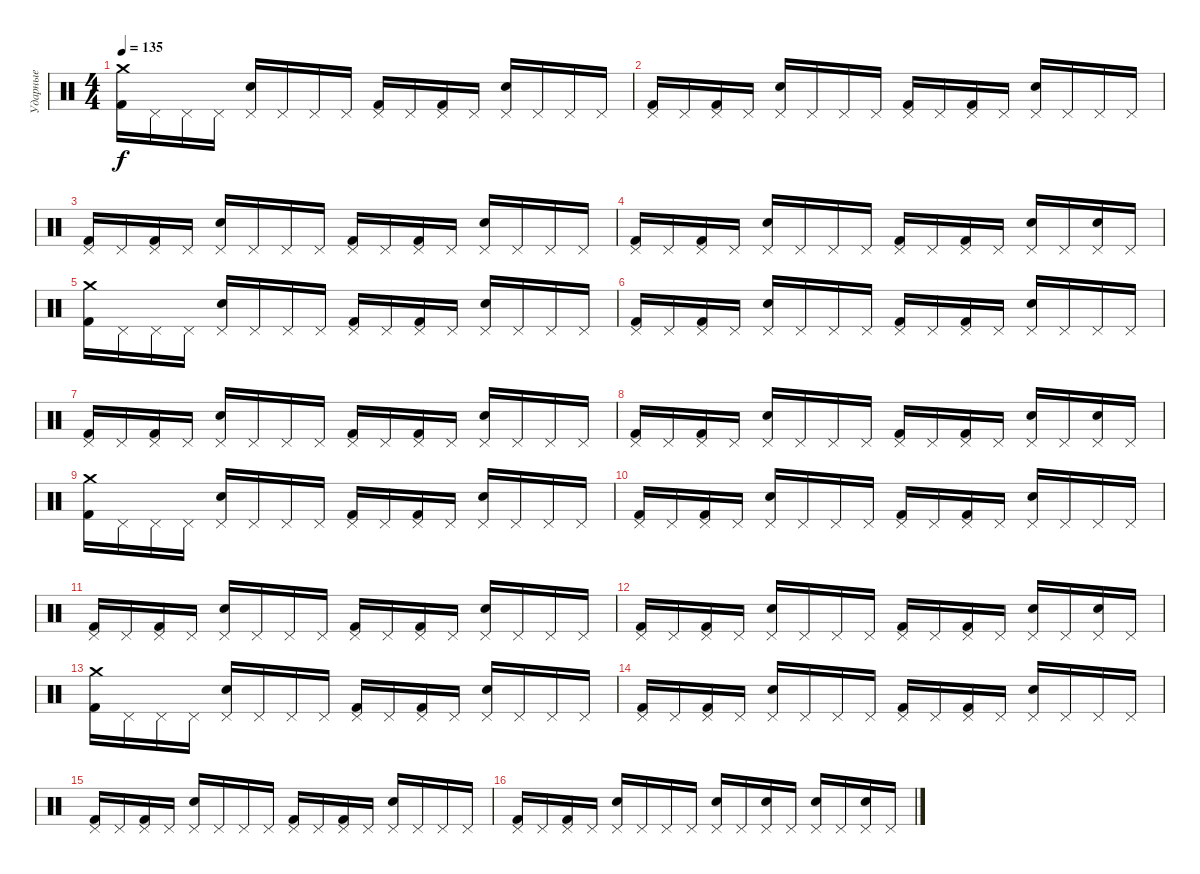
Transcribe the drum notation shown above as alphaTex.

\track ("Ударные" "Ударные") {instrument percussion}
\staff {score}
\articulation defaults
\ts (4 4)
\tempo 135
\clef neutral
\ks c
("Crash medium (hit)" "Kick (hit) 2").16{dy f} "Pedal Hi-Hat (hit)".16 "Pedal Hi-Hat (hit)".16 "Pedal Hi-Hat (hit)".16 ("Pedal Hi-Hat (hit)" "Snare (hit) 2").16 "Pedal Hi-Hat (hit)".16 "Pedal Hi-Hat (hit)".16 "Pedal Hi-Hat (hit)".16 ("Pedal Hi-Hat (hit)" "Kick (hit) 2").16 "Pedal Hi-Hat (hit)".16 ("Pedal Hi-Hat (hit)" "Kick (hit) 2").16 "Pedal Hi-Hat (hit)".16 ("Pedal Hi-Hat (hit)" "Snare (hit) 2").16 "Pedal Hi-Hat (hit)".16 "Pedal Hi-Hat (hit)".16 "Pedal Hi-Hat (hit)".16 |
("Pedal Hi-Hat (hit)" "Kick (hit) 2").16 "Pedal Hi-Hat (hit)".16 ("Pedal Hi-Hat (hit)" "Kick (hit) 2").16 "Pedal Hi-Hat (hit)".16 ("Pedal Hi-Hat (hit)" "Snare (hit) 2").16 "Pedal Hi-Hat (hit)".16 "Pedal Hi-Hat (hit)".16 "Pedal Hi-Hat (hit)".16 ("Pedal Hi-Hat (hit)" "Kick (hit) 2").16 "Pedal Hi-Hat (hit)".16 ("Pedal Hi-Hat (hit)" "Kick (hit) 2").16 "Pedal Hi-Hat (hit)".16 ("Pedal Hi-Hat (hit)" "Snare (hit) 2").16 "Pedal Hi-Hat (hit)".16 "Pedal Hi-Hat (hit)".16 "Pedal Hi-Hat (hit)".16 |
("Pedal Hi-Hat (hit)" "Kick (hit) 2").16 "Pedal Hi-Hat (hit)".16 ("Pedal Hi-Hat (hit)" "Kick (hit) 2").16 "Pedal Hi-Hat (hit)".16 ("Pedal Hi-Hat (hit)" "Snare (hit) 2").16 "Pedal Hi-Hat (hit)".16 "Pedal Hi-Hat (hit)".16 "Pedal Hi-Hat (hit)".16 ("Pedal Hi-Hat (hit)" "Kick (hit) 2").16 "Pedal Hi-Hat (hit)".16 ("Pedal Hi-Hat (hit)" "Kick (hit) 2").16 "Pedal Hi-Hat (hit)".16 ("Pedal Hi-Hat (hit)" "Snare (hit) 2").16 "Pedal Hi-Hat (hit)".16 "Pedal Hi-Hat (hit)".16 "Pedal Hi-Hat (hit)".16 |
("Pedal Hi-Hat (hit)" "Kick (hit) 2").16 "Pedal Hi-Hat (hit)".16 ("Pedal Hi-Hat (hit)" "Kick (hit) 2").16 "Pedal Hi-Hat (hit)".16 ("Pedal Hi-Hat (hit)" "Snare (hit) 2").16 "Pedal Hi-Hat (hit)".16 "Pedal Hi-Hat (hit)".16 "Pedal Hi-Hat (hit)".16 ("Pedal Hi-Hat (hit)" "Kick (hit) 2").16 "Pedal Hi-Hat (hit)".16 ("Pedal Hi-Hat (hit)" "Kick (hit) 2").16 "Pedal Hi-Hat (hit)".16 ("Pedal Hi-Hat (hit)" "Snare (hit) 2").16 "Pedal Hi-Hat (hit)".16 ("Pedal Hi-Hat (hit)" "Snare (hit) 2").16 "Pedal Hi-Hat (hit)".16 |
("Crash medium (hit)" "Kick (hit) 2").16 "Pedal Hi-Hat (hit)".16 "Pedal Hi-Hat (hit)".16 "Pedal Hi-Hat (hit)".16 ("Pedal Hi-Hat (hit)" "Snare (hit) 2").16 "Pedal Hi-Hat (hit)".16 "Pedal Hi-Hat (hit)".16 "Pedal Hi-Hat (hit)".16 ("Pedal Hi-Hat (hit)" "Kick (hit) 2").16 "Pedal Hi-Hat (hit)".16 ("Pedal Hi-Hat (hit)" "Kick (hit) 2").16 "Pedal Hi-Hat (hit)".16 ("Pedal Hi-Hat (hit)" "Snare (hit) 2").16 "Pedal Hi-Hat (hit)".16 "Pedal Hi-Hat (hit)".16 "Pedal Hi-Hat (hit)".16 |
("Pedal Hi-Hat (hit)" "Kick (hit) 2").16 "Pedal Hi-Hat (hit)".16 ("Pedal Hi-Hat (hit)" "Kick (hit) 2").16 "Pedal Hi-Hat (hit)".16 ("Pedal Hi-Hat (hit)" "Snare (hit) 2").16 "Pedal Hi-Hat (hit)".16 "Pedal Hi-Hat (hit)".16 "Pedal Hi-Hat (hit)".16 ("Pedal Hi-Hat (hit)" "Kick (hit) 2").16 "Pedal Hi-Hat (hit)".16 ("Pedal Hi-Hat (hit)" "Kick (hit) 2").16 "Pedal Hi-Hat (hit)".16 ("Pedal Hi-Hat (hit)" "Snare (hit) 2").16 "Pedal Hi-Hat (hit)".16 "Pedal Hi-Hat (hit)".16 "Pedal Hi-Hat (hit)".16 |
("Pedal Hi-Hat (hit)" "Kick (hit) 2").16 "Pedal Hi-Hat (hit)".16 ("Pedal Hi-Hat (hit)" "Kick (hit) 2").16 "Pedal Hi-Hat (hit)".16 ("Pedal Hi-Hat (hit)" "Snare (hit) 2").16 "Pedal Hi-Hat (hit)".16 "Pedal Hi-Hat (hit)".16 "Pedal Hi-Hat (hit)".16 ("Pedal Hi-Hat (hit)" "Kick (hit) 2").16 "Pedal Hi-Hat (hit)".16 ("Pedal Hi-Hat (hit)" "Kick (hit) 2").16 "Pedal Hi-Hat (hit)".16 ("Pedal Hi-Hat (hit)" "Snare (hit) 2").16 "Pedal Hi-Hat (hit)".16 "Pedal Hi-Hat (hit)".16 "Pedal Hi-Hat (hit)".16 |
("Pedal Hi-Hat (hit)" "Kick (hit) 2").16 "Pedal Hi-Hat (hit)".16 ("Pedal Hi-Hat (hit)" "Kick (hit) 2").16 "Pedal Hi-Hat (hit)".16 ("Pedal Hi-Hat (hit)" "Snare (hit) 2").16 "Pedal Hi-Hat (hit)".16 "Pedal Hi-Hat (hit)".16 "Pedal Hi-Hat (hit)".16 ("Pedal Hi-Hat (hit)" "Kick (hit) 2").16 "Pedal Hi-Hat (hit)".16 ("Pedal Hi-Hat (hit)" "Kick (hit) 2").16 "Pedal Hi-Hat (hit)".16 ("Pedal Hi-Hat (hit)" "Snare (hit) 2").16 "Pedal Hi-Hat (hit)".16 ("Pedal Hi-Hat (hit)" "Snare (hit) 2").16 "Pedal Hi-Hat (hit)".16 |
("Crash medium (hit)" "Kick (hit) 2").16 "Pedal Hi-Hat (hit)".16 "Pedal Hi-Hat (hit)".16 "Pedal Hi-Hat (hit)".16 ("Pedal Hi-Hat (hit)" "Snare (hit) 2").16 "Pedal Hi-Hat (hit)".16 "Pedal Hi-Hat (hit)".16 "Pedal Hi-Hat (hit)".16 ("Pedal Hi-Hat (hit)" "Kick (hit) 2").16 "Pedal Hi-Hat (hit)".16 ("Pedal Hi-Hat (hit)" "Kick (hit) 2").16 "Pedal Hi-Hat (hit)".16 ("Pedal Hi-Hat (hit)" "Snare (hit) 2").16 "Pedal Hi-Hat (hit)".16 "Pedal Hi-Hat (hit)".16 "Pedal Hi-Hat (hit)".16 |
("Pedal Hi-Hat (hit)" "Kick (hit) 2").16 "Pedal Hi-Hat (hit)".16 ("Pedal Hi-Hat (hit)" "Kick (hit) 2").16 "Pedal Hi-Hat (hit)".16 ("Pedal Hi-Hat (hit)" "Snare (hit) 2").16 "Pedal Hi-Hat (hit)".16 "Pedal Hi-Hat (hit)".16 "Pedal Hi-Hat (hit)".16 ("Pedal Hi-Hat (hit)" "Kick (hit) 2").16 "Pedal Hi-Hat (hit)".16 ("Pedal Hi-Hat (hit)" "Kick (hit) 2").16 "Pedal Hi-Hat (hit)".16 ("Pedal Hi-Hat (hit)" "Snare (hit) 2").16 "Pedal Hi-Hat (hit)".16 "Pedal Hi-Hat (hit)".16 "Pedal Hi-Hat (hit)".16 |
("Pedal Hi-Hat (hit)" "Kick (hit) 2").16 "Pedal Hi-Hat (hit)".16 ("Pedal Hi-Hat (hit)" "Kick (hit) 2").16 "Pedal Hi-Hat (hit)".16 ("Pedal Hi-Hat (hit)" "Snare (hit) 2").16 "Pedal Hi-Hat (hit)".16 "Pedal Hi-Hat (hit)".16 "Pedal Hi-Hat (hit)".16 ("Pedal Hi-Hat (hit)" "Kick (hit) 2").16 "Pedal Hi-Hat (hit)".16 ("Pedal Hi-Hat (hit)" "Kick (hit) 2").16 "Pedal Hi-Hat (hit)".16 ("Pedal Hi-Hat (hit)" "Snare (hit) 2").16 "Pedal Hi-Hat (hit)".16 "Pedal Hi-Hat (hit)".16 "Pedal Hi-Hat (hit)".16 |
("Pedal Hi-Hat (hit)" "Kick (hit) 2").16 "Pedal Hi-Hat (hit)".16 ("Pedal Hi-Hat (hit)" "Kick (hit) 2").16 "Pedal Hi-Hat (hit)".16 ("Pedal Hi-Hat (hit)" "Snare (hit) 2").16 "Pedal Hi-Hat (hit)".16 "Pedal Hi-Hat (hit)".16 "Pedal Hi-Hat (hit)".16 ("Pedal Hi-Hat (hit)" "Kick (hit) 2").16 "Pedal Hi-Hat (hit)".16 ("Pedal Hi-Hat (hit)" "Kick (hit) 2").16 "Pedal Hi-Hat (hit)".16 ("Pedal Hi-Hat (hit)" "Snare (hit) 2").16 "Pedal Hi-Hat (hit)".16 ("Pedal Hi-Hat (hit)" "Snare (hit) 2").16 "Pedal Hi-Hat (hit)".16 |
("Crash medium (hit)" "Kick (hit) 2").16 "Pedal Hi-Hat (hit)".16 "Pedal Hi-Hat (hit)".16 "Pedal Hi-Hat (hit)".16 ("Pedal Hi-Hat (hit)" "Snare (hit) 2").16 "Pedal Hi-Hat (hit)".16 "Pedal Hi-Hat (hit)".16 "Pedal Hi-Hat (hit)".16 ("Pedal Hi-Hat (hit)" "Kick (hit) 2").16 "Pedal Hi-Hat (hit)".16 ("Pedal Hi-Hat (hit)" "Kick (hit) 2").16 "Pedal Hi-Hat (hit)".16 ("Pedal Hi-Hat (hit)" "Snare (hit) 2").16 "Pedal Hi-Hat (hit)".16 "Pedal Hi-Hat (hit)".16 "Pedal Hi-Hat (hit)".16 |
("Pedal Hi-Hat (hit)" "Kick (hit) 2").16 "Pedal Hi-Hat (hit)".16 ("Pedal Hi-Hat (hit)" "Kick (hit) 2").16 "Pedal Hi-Hat (hit)".16 ("Pedal Hi-Hat (hit)" "Snare (hit) 2").16 "Pedal Hi-Hat (hit)".16 "Pedal Hi-Hat (hit)".16 "Pedal Hi-Hat (hit)".16 ("Pedal Hi-Hat (hit)" "Kick (hit) 2").16 "Pedal Hi-Hat (hit)".16 ("Pedal Hi-Hat (hit)" "Kick (hit) 2").16 "Pedal Hi-Hat (hit)".16 ("Pedal Hi-Hat (hit)" "Snare (hit) 2").16 "Pedal Hi-Hat (hit)".16 "Pedal Hi-Hat (hit)".16 "Pedal Hi-Hat (hit)".16 |
("Pedal Hi-Hat (hit)" "Kick (hit) 2").16 "Pedal Hi-Hat (hit)".16 ("Pedal Hi-Hat (hit)" "Kick (hit) 2").16 "Pedal Hi-Hat (hit)".16 ("Pedal Hi-Hat (hit)" "Snare (hit) 2").16 "Pedal Hi-Hat (hit)".16 "Pedal Hi-Hat (hit)".16 "Pedal Hi-Hat (hit)".16 ("Pedal Hi-Hat (hit)" "Kick (hit) 2").16 "Pedal Hi-Hat (hit)".16 ("Pedal Hi-Hat (hit)" "Kick (hit) 2").16 "Pedal Hi-Hat (hit)".16 ("Pedal Hi-Hat (hit)" "Snare (hit) 2").16 "Pedal Hi-Hat (hit)".16 "Pedal Hi-Hat (hit)".16 "Pedal Hi-Hat (hit)".16 |
("Pedal Hi-Hat (hit)" "Kick (hit) 2").16 "Pedal Hi-Hat (hit)".16 ("Pedal Hi-Hat (hit)" "Kick (hit) 2").16 "Pedal Hi-Hat (hit)".16 ("Pedal Hi-Hat (hit)" "Snare (hit) 2").16 "Pedal Hi-Hat (hit)".16 "Pedal Hi-Hat (hit)".16 "Pedal Hi-Hat (hit)".16 ("Pedal Hi-Hat (hit)" "Snare (hit) 2").16 "Pedal Hi-Hat (hit)".16 ("Pedal Hi-Hat (hit)" "Snare (hit) 2").16 "Pedal Hi-Hat (hit)".16 ("Pedal Hi-Hat (hit)" "Snare (hit) 2").16 "Pedal Hi-Hat (hit)".16 ("Pedal Hi-Hat (hit)" "Snare (hit) 2").16 "Pedal Hi-Hat (hit)".16
